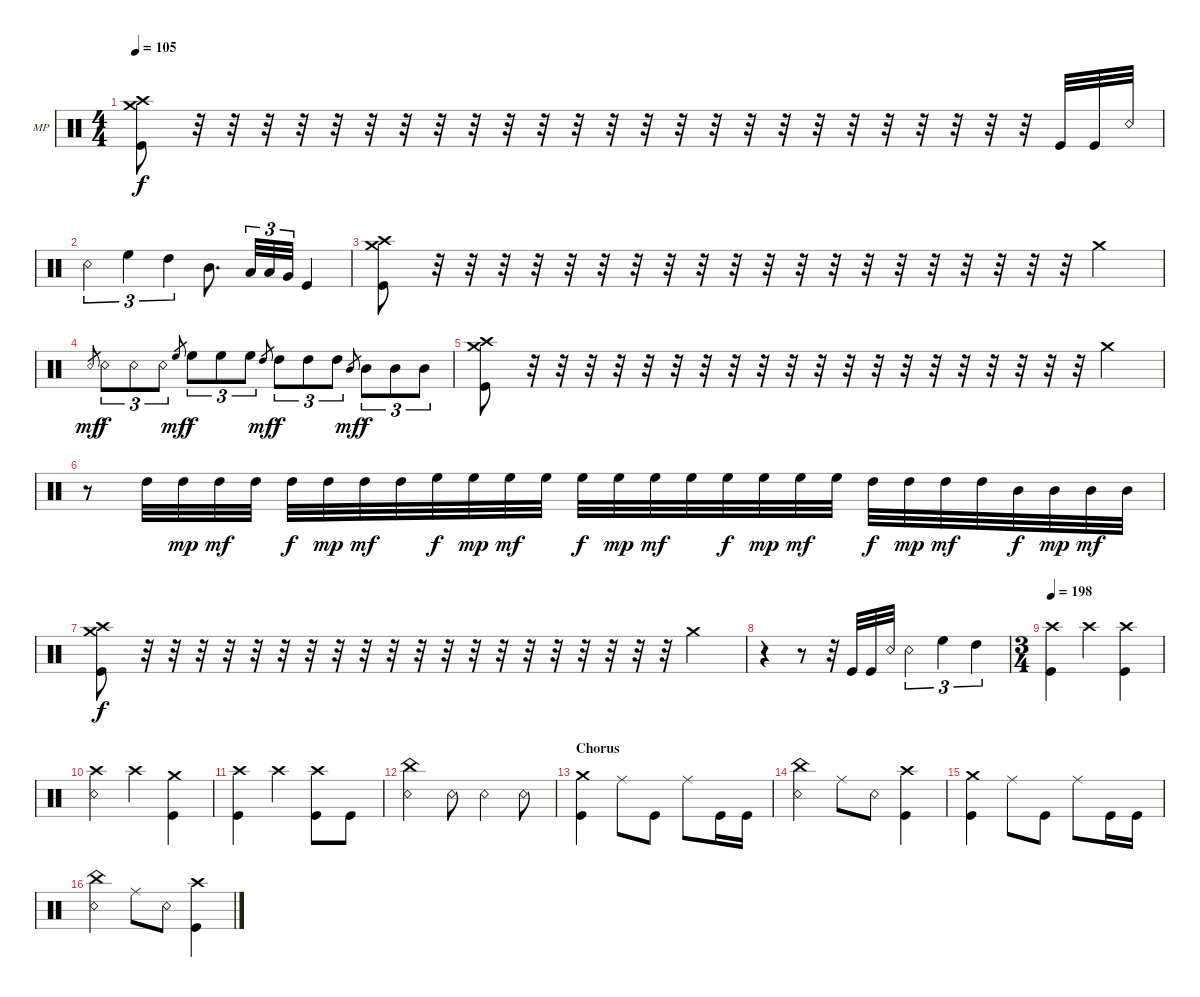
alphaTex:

\defaultSystemsLayout 4
\bracketExtendMode groupsimilarinstruments
\firstSystemTrackNameOrientation horizontal
\otherSystemsTrackNameOrientation horizontal
\track ("Mike Portnoy" "MP") {instrument percussion}
\staff {score}
\articulation defaults
\ts (4 4)
\tempo 105
\clef neutral
\ks c
("Crash medium (hit)" "Crash high (hit)" "Kick (hit)").8{dy f} r.32 r.32 r.32 r.32 r.32 r.32 r.32 r.32 r.32 r.32 r.32 r.32 r.32 r.32 r.32 r.32 r.32 r.32 r.32 r.32 r.32 r.32 r.32 r.32 r.32 "Kick (hit)".32 "Kick (hit)".32 "Snare (rim shot)".32 |
"Snare (rim shot)".4{tu (3 2)} "High Floor Tom (hit)".4{tu (3 2)} "High Tom (hit)".4{tu (3 2)} "Mid Tom (hit)".8{d} "Low Tom (hit)".32{tu (3 2)} "Low Tom (hit)".32{tu (3 2)} "Very Low Tom (hit)".32{tu (3 2)} "Kick (hit)".4 |
("Crash medium (hit)" "Crash high (hit)" "Kick (hit)").8 r.32 r.32 r.32 r.32 r.32 r.32 r.32 r.32 r.32 r.32 r.32 r.32 r.32 r.32 r.32 r.32 r.32 r.32 r.32 r.32 "Crash medium (hit)".4 |
"Snare (rim shot)".8{gr dy mf} "Snare (rim shot)".8{tu (3 2) dy f} "Snare (rim shot)".8{tu (3 2)} "Snare (rim shot)".8{tu (3 2)} "High Floor Tom (hit)".8{gr dy mf} "High Floor Tom (hit)".8{tu (3 2) dy f} "High Floor Tom (hit)".8{tu (3 2)} "High Floor Tom (hit)".8{tu (3 2)} "High Tom (hit)".8{gr dy mf} "High Tom (hit)".8{tu (3 2) dy f} "High Tom (hit)".8{tu (3 2)} "High Tom (hit)".8{tu (3 2)} "Mid Tom (hit)".8{gr dy mf} "Mid Tom (hit)".8{tu (3 2) dy f} "Mid Tom (hit)".8{tu (3 2)} "Mid Tom (hit)".8{tu (3 2)} |
("Crash medium (hit)" "Crash high (hit)" "Kick (hit)").8 r.32 r.32 r.32 r.32 r.32 r.32 r.32 r.32 r.32 r.32 r.32 r.32 r.32 r.32 r.32 r.32 r.32 r.32 r.32 r.32 "Crash medium (hit)".4 |
r.8 "High Tom (hit)".32 "High Tom (hit)".32{dy mp} "High Tom (hit)".32{dy mf} "High Tom (hit)".32 "High Tom (hit)".32{dy f} "High Tom (hit)".32{dy mp} "High Tom (hit)".32{dy mf} "High Tom (hit)".32 "High Floor Tom (hit)".32{dy f} "High Floor Tom (hit)".32{dy mp} "High Floor Tom (hit)".32{dy mf} "High Floor Tom (hit)".32 "High Floor Tom (hit)".32{dy f} "High Floor Tom (hit)".32{dy mp} "High Floor Tom (hit)".32{dy mf} "High Floor Tom (hit)".32 "High Floor Tom (hit)".32{dy f} "High Floor Tom (hit)".32{dy mp} "High Floor Tom (hit)".32{dy mf} "High Floor Tom (hit)".32 "High Tom (hit)".32{dy f} "High Tom (hit)".32{dy mp} "High Tom (hit)".32{dy mf} "High Tom (hit)".32 "Mid Tom (hit)".32{dy f} "Mid Tom (hit)".32{dy mp} "Mid Tom (hit)".32{dy mf} "Mid Tom (hit)".32 |
("Crash medium (hit)" "Crash high (hit)" "Kick (hit)").8{dy f} r.32 r.32 r.32 r.32 r.32 r.32 r.32 r.32 r.32 r.32 r.32 r.32 r.32 r.32 r.32 r.32 r.32 r.32 r.32 r.32 "Crash medium (hit)".4 |
r.4 r.8 r.32 "Kick (hit)".32 "Kick (hit)".32 "Snare (rim shot)".32 "Snare (rim shot)".4{tu (3 2)} "High Floor Tom (hit)".4{tu (3 2)} "High Tom (hit)".4{tu (3 2)} |
\ts (3 4)
\tempo 198
("Crash high (hit)" "Kick (hit)").4 "Crash high (hit)".4 ("Crash high (hit)" "Kick (hit)").4 |
("Crash high (hit)" "Snare (rim shot)").4 "Crash high (hit)".4 ("Crash medium (hit)" "Kick (hit)").4 |
("Crash high (hit)" "Kick (hit)").4 "Crash high (hit)".4 ("Crash high (hit)" "Kick (hit)").8 "Kick (hit)".8 |
("China (hit)" "Snare (rim shot)").4 "Snare (rim shot)".8 "Snare (rim shot)".4 "Snare (rim shot)".8 |
\section ("" "Chorus")
("Crash medium (hit)" "Kick (hit)").4 "Ride (middle)".8 "Kick (hit)".8 "Ride (middle)".8 "Kick (hit)".16 "Kick (hit)".16 |
("China (hit)" "Snare (rim shot)").4 "Ride (middle)".8 "Snare (rim shot)".8 ("Crash high (hit)" "Kick (hit)").4 |
("Crash medium (hit)" "Kick (hit)").4 "Ride (middle)".8 "Kick (hit)".8 "Ride (middle)".8 "Kick (hit)".16 "Kick (hit)".16 |
("China (hit)" "Snare (rim shot)").4 "Ride (middle)".8 "Snare (rim shot)".8 ("Crash high (hit)" "Kick (hit)").4
